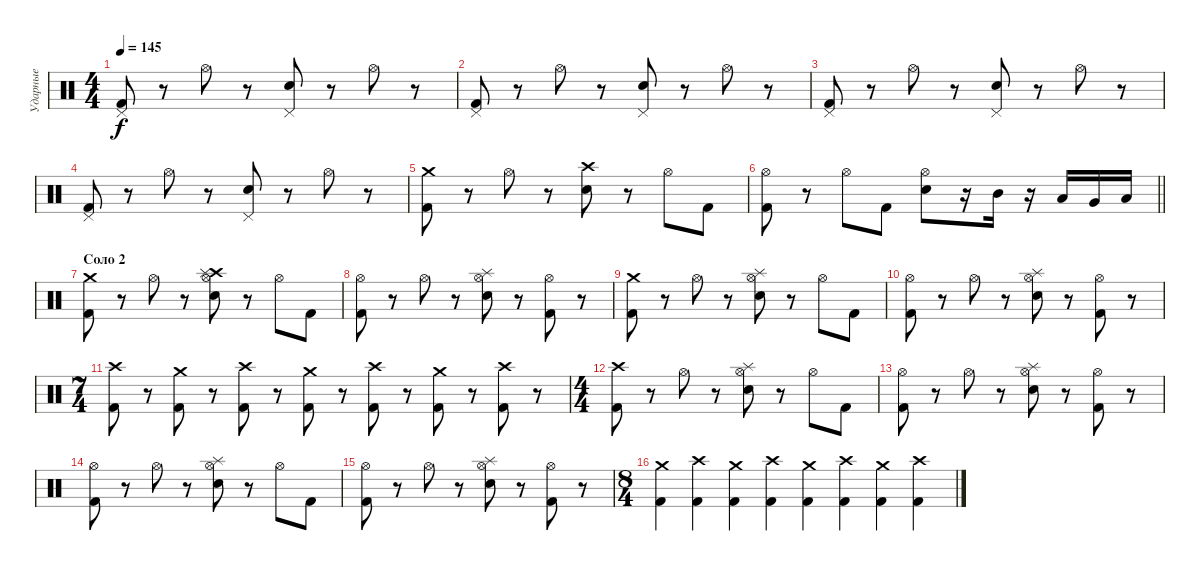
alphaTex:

\track ("Ударные" "Ударные") {instrument percussion}
\staff {score}
\articulation defaults
\ts (4 4)
\tempo 145
\clef neutral
\ks c
("Pedal Hi-Hat (hit)" "Kick (hit) 2").8{dy f} r.8 "Hi-Hat (open)".8 r.8 ("Pedal Hi-Hat (hit)" "Snare (hit) 2").8 r.8 "Hi-Hat (open)".8 r.8 |
("Pedal Hi-Hat (hit)" "Kick (hit) 2").8 r.8 "Hi-Hat (open)".8 r.8 ("Pedal Hi-Hat (hit)" "Snare (hit) 2").8 r.8 "Hi-Hat (open)".8 r.8 |
("Pedal Hi-Hat (hit)" "Kick (hit) 2").8 r.8 "Hi-Hat (open)".8 r.8 ("Pedal Hi-Hat (hit)" "Snare (hit) 2").8 r.8 "Hi-Hat (open)".8 r.8 |
("Pedal Hi-Hat (hit)" "Kick (hit) 2").8 r.8 "Hi-Hat (open)".8 r.8 ("Pedal Hi-Hat (hit)" "Snare (hit) 2").8 r.8 "Hi-Hat (open)".8 r.8 |
("Crash medium (hit)" "Kick (hit) 2").8 r.8 "Hi-Hat (open)".8 r.8 ("Crash high (hit)" "Snare (hit) 2").8 r.8 "Hi-Hat (open)".8 "Kick (hit) 2".8 |
\barLineRight lightlight
("Hi-Hat (open)" "Kick (hit) 2").8 r.8 "Hi-Hat (open)".8 "Kick (hit) 2".8 ("Hi-Hat (open)" "Snare (hit) 2").8 r.16 "Mid Tom (hit)".16 r.16 "Low Tom (hit)".16 "Very Low Tom (hit)".16 "Low Floor Tom (hit)".16 |
\section ("" "Соло 2")
("Crash medium (hit)" "Kick (hit) 2").8 r.8 "Hi-Hat (open)".8 r.8 ("Crash high (hit)" "Splash (hit)" "Hi-Hat (open)" "Snare (hit) 2").8 r.8 "Hi-Hat (open)".8 "Kick (hit) 2".8 |
("Hi-Hat (open)" "Kick (hit) 2").8 r.8 "Hi-Hat (open)".8 r.8 ("Splash (hit)" "Hi-Hat (open)" "Snare (hit) 2").8 r.8 ("Hi-Hat (open)" "Kick (hit) 2").8 r.8 |
("Crash medium (hit)" "Kick (hit) 2").8 r.8 "Hi-Hat (open)".8 r.8 ("Splash (hit)" "Hi-Hat (open)" "Snare (hit) 2").8 r.8 "Hi-Hat (open)".8 "Kick (hit) 2".8 |
("Hi-Hat (open)" "Kick (hit) 2").8 r.8 "Hi-Hat (open)".8 r.8 ("Splash (hit)" "Hi-Hat (open)" "Snare (hit) 2").8 r.8 ("Hi-Hat (open)" "Kick (hit) 2").8 r.8 |
\ts (7 4)
("Crash high (hit)" "Kick (hit) 2").8 r.8 ("Crash medium (hit)" "Kick (hit) 2").8 r.8 ("Crash high (hit)" "Kick (hit) 2").8 r.8 ("Crash medium (hit)" "Kick (hit) 2").8 r.8 ("Crash high (hit)" "Kick (hit) 2").8 r.8 ("Crash medium (hit)" "Kick (hit) 2").8 r.8 ("Crash high (hit)" "Kick (hit) 2").8 r.8 |
\ts (4 4)
("Crash high (hit)" "Kick (hit) 2").8 r.8 "Hi-Hat (open)".8 r.8 ("Splash (hit)" "Hi-Hat (open)" "Snare (hit) 2").8 r.8 "Hi-Hat (open)".8 "Kick (hit) 2".8 |
("Hi-Hat (open)" "Kick (hit) 2").8 r.8 "Hi-Hat (open)".8 r.8 ("Splash (hit)" "Hi-Hat (open)" "Snare (hit) 2").8 r.8 ("Hi-Hat (open)" "Kick (hit) 2").8 r.8 |
("Hi-Hat (open)" "Kick (hit) 2").8 r.8 "Hi-Hat (open)".8 r.8 ("Splash (hit)" "Hi-Hat (open)" "Snare (hit) 2").8 r.8 "Hi-Hat (open)".8 "Kick (hit) 2".8 |
("Hi-Hat (open)" "Kick (hit) 2").8 r.8 "Hi-Hat (open)".8 r.8 ("Splash (hit)" "Hi-Hat (open)" "Snare (hit) 2").8 r.8 ("Hi-Hat (open)" "Kick (hit) 2").8 r.8 |
\ts (8 4)
("Crash medium (hit)" "Kick (hit) 2").4 ("Crash high (hit)" "Kick (hit) 2").4 ("Crash medium (hit)" "Kick (hit) 2").4 ("Crash high (hit)" "Kick (hit) 2").4 ("Crash medium (hit)" "Kick (hit) 2").4 ("Crash high (hit)" "Kick (hit) 2").4 ("Crash medium (hit)" "Kick (hit) 2").4 ("Crash high (hit)" "Kick (hit) 2").4
